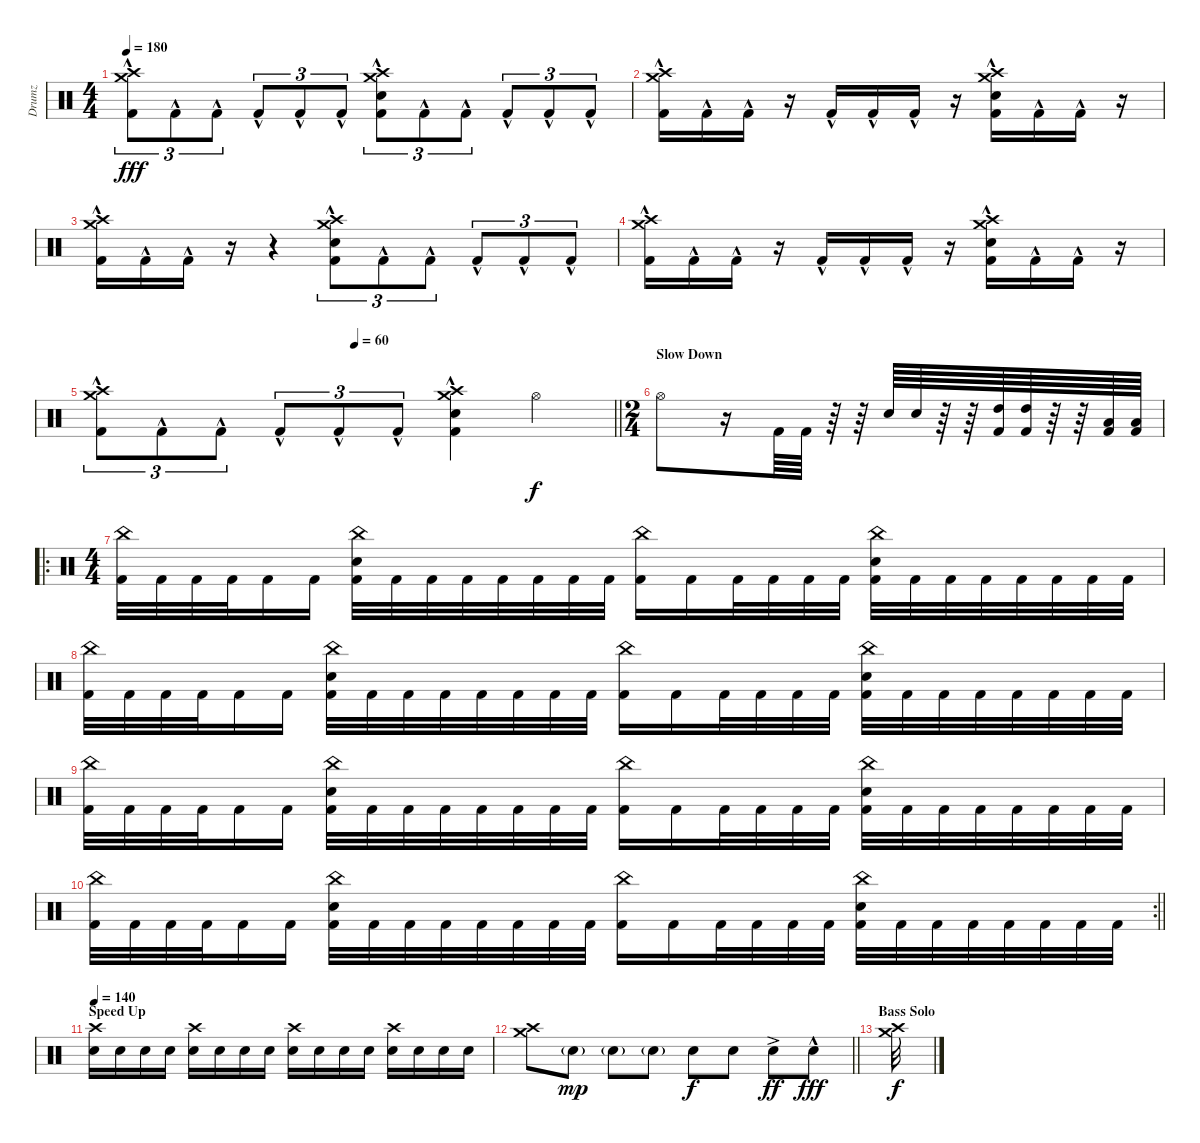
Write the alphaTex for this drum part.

\track ("Drumz" "Drumz") {instrument percussion}
\staff {score}
\articulation defaults
\ts (4 4)
\tempo 180
\clef neutral
\ks c
("Crash high (hit)" "Crash medium (hit)" "Kick (hit) 2"{hac}).8{tu (3 2) dy fff} "Kick (hit) 2"{hac}.8{tu (3 2)} "Kick (hit) 2"{hac}.8{tu (3 2)} "Kick (hit) 2"{hac}.8{tu (3 2)} "Kick (hit) 2"{hac}.8{tu (3 2)} "Kick (hit) 2"{hac}.8{tu (3 2)} ("Snare (hit) 2" "Crash high (hit)" "Crash medium (hit)" "Kick (hit) 2"{hac}).8{tu (3 2)} "Kick (hit) 2"{hac}.8{tu (3 2)} "Kick (hit) 2"{hac}.8{tu (3 2)} "Kick (hit) 2"{hac}.8{tu (3 2)} "Kick (hit) 2"{hac}.8{tu (3 2)} "Kick (hit) 2"{hac}.8{tu (3 2)} |
("Crash high (hit)" "Crash medium (hit)" "Kick (hit) 2"{hac}).16 "Kick (hit) 2"{hac}.16 "Kick (hit) 2"{hac}.16 r.16 "Kick (hit) 2"{hac}.16 "Kick (hit) 2"{hac}.16 "Kick (hit) 2"{hac}.16 r.16 ("Snare (hit) 2" "Crash high (hit)" "Crash medium (hit)" "Kick (hit) 2"{hac}).16 "Kick (hit) 2"{hac}.16 "Kick (hit) 2"{hac}.16 r.16 |
("Crash high (hit)" "Crash medium (hit)" "Kick (hit) 2"{hac}).16 "Kick (hit) 2"{hac}.16 "Kick (hit) 2"{hac}.16 r.16 r.4 ("Snare (hit) 2" "Crash high (hit)" "Crash medium (hit)" "Kick (hit) 2"{hac}).8{tu (3 2)} "Kick (hit) 2"{hac}.8{tu (3 2)} "Kick (hit) 2"{hac}.8{tu (3 2)} "Kick (hit) 2"{hac}.8{tu (3 2)} "Kick (hit) 2"{hac}.8{tu (3 2)} "Kick (hit) 2"{hac}.8{tu (3 2)} |
("Crash high (hit)" "Crash medium (hit)" "Kick (hit) 2"{hac}).16 "Kick (hit) 2"{hac}.16 "Kick (hit) 2"{hac}.16 r.16 "Kick (hit) 2"{hac}.16 "Kick (hit) 2"{hac}.16 "Kick (hit) 2"{hac}.16 r.16 ("Snare (hit) 2" "Crash high (hit)" "Crash medium (hit)" "Kick (hit) 2"{hac}).16 "Kick (hit) 2"{hac}.16 "Kick (hit) 2"{hac}.16 r.16 |
\tempo (60 0.5)
\barLineRight lightlight
("Crash high (hit)" "Crash medium (hit)" "Kick (hit) 2"{hac}).8{tu (3 2)} "Kick (hit) 2"{hac}.8{tu (3 2)} "Kick (hit) 2"{hac}.8{tu (3 2)} "Kick (hit) 2"{hac}.8{tu (3 2)} "Kick (hit) 2"{hac}.8{tu (3 2)} "Kick (hit) 2"{hac}.8{tu (3 2)} ("Snare (hit) 2" "Crash high (hit)" "Crash medium (hit)" "Kick (hit) 2"{hac}).4 "Hi-Hat (open)".4{dy f} |
\ts (2 4)
\section ("" "Slow Down")
"Hi-Hat (open)".8 r.16 "Kick (hit) 2".64 "Kick (hit) 2".64 r.64 r.64 "Electric Snare (hit)".64 "Electric Snare (hit)".64 r.64 r.64 ("High Tom (hit)" "Kick (hit) 2").64 ("High Tom (hit)" "Kick (hit) 2").64 r.64 r.64 ("Low Tom (hit)" "Kick (hit) 2").64 ("Low Tom (hit)" "Kick (hit) 2").64 |
\ro
\ts (4 4)
("China (hit)" "Kick (hit) 2").32 "Kick (hit) 2".32 "Kick (hit) 2".32 "Kick (hit) 2".32 "Kick (hit) 2".16 "Kick (hit) 2".16 ("Electric Snare (hit)" "China (hit)" "Kick (hit) 2").32 "Kick (hit) 2".32 "Kick (hit) 2".32 "Kick (hit) 2".32 "Kick (hit) 2".32 "Kick (hit) 2".32 "Kick (hit) 2".32 "Kick (hit) 2".32 ("China (hit)" "Kick (hit) 2").16 "Kick (hit) 2".16 "Kick (hit) 2".32 "Kick (hit) 2".32 "Kick (hit) 2".32 "Kick (hit) 2".32 ("Electric Snare (hit)" "China (hit)" "Kick (hit) 2").32 "Kick (hit) 2".32 "Kick (hit) 2".32 "Kick (hit) 2".32 "Kick (hit) 2".32 "Kick (hit) 2".32 "Kick (hit) 2".32 "Kick (hit) 2".32 |
("China (hit)" "Kick (hit) 2").32 "Kick (hit) 2".32 "Kick (hit) 2".32 "Kick (hit) 2".32 "Kick (hit) 2".16 "Kick (hit) 2".16 ("Electric Snare (hit)" "China (hit)" "Kick (hit) 2").32 "Kick (hit) 2".32 "Kick (hit) 2".32 "Kick (hit) 2".32 "Kick (hit) 2".32 "Kick (hit) 2".32 "Kick (hit) 2".32 "Kick (hit) 2".32 ("China (hit)" "Kick (hit) 2").16 "Kick (hit) 2".16 "Kick (hit) 2".32 "Kick (hit) 2".32 "Kick (hit) 2".32 "Kick (hit) 2".32 ("Electric Snare (hit)" "China (hit)" "Kick (hit) 2").32 "Kick (hit) 2".32 "Kick (hit) 2".32 "Kick (hit) 2".32 "Kick (hit) 2".32 "Kick (hit) 2".32 "Kick (hit) 2".32 "Kick (hit) 2".32 |
("China (hit)" "Kick (hit) 2").32 "Kick (hit) 2".32 "Kick (hit) 2".32 "Kick (hit) 2".32 "Kick (hit) 2".16 "Kick (hit) 2".16 ("Electric Snare (hit)" "China (hit)" "Kick (hit) 2").32 "Kick (hit) 2".32 "Kick (hit) 2".32 "Kick (hit) 2".32 "Kick (hit) 2".32 "Kick (hit) 2".32 "Kick (hit) 2".32 "Kick (hit) 2".32 ("China (hit)" "Kick (hit) 2").16 "Kick (hit) 2".16 "Kick (hit) 2".32 "Kick (hit) 2".32 "Kick (hit) 2".32 "Kick (hit) 2".32 ("Electric Snare (hit)" "China (hit)" "Kick (hit) 2").32 "Kick (hit) 2".32 "Kick (hit) 2".32 "Kick (hit) 2".32 "Kick (hit) 2".32 "Kick (hit) 2".32 "Kick (hit) 2".32 "Kick (hit) 2".32 |
\rc 2
\barLineRight lightlight
("China (hit)" "Kick (hit) 2").32 "Kick (hit) 2".32 "Kick (hit) 2".32 "Kick (hit) 2".32 "Kick (hit) 2".16 "Kick (hit) 2".16 ("Electric Snare (hit)" "China (hit)" "Kick (hit) 2").32 "Kick (hit) 2".32 "Kick (hit) 2".32 "Kick (hit) 2".32 "Kick (hit) 2".32 "Kick (hit) 2".32 "Kick (hit) 2".32 "Kick (hit) 2".32 ("China (hit)" "Kick (hit) 2").16 "Kick (hit) 2".16 "Kick (hit) 2".32 "Kick (hit) 2".32 "Kick (hit) 2".32 "Kick (hit) 2".32 ("Electric Snare (hit)" "China (hit)" "Kick (hit) 2").32 "Kick (hit) 2".32 "Kick (hit) 2".32 "Kick (hit) 2".32 "Kick (hit) 2".32 "Kick (hit) 2".32 "Kick (hit) 2".32 "Kick (hit) 2".32 |
\section ("" "Speed Up")
\tempo 140
("Crash high (hit)" "Electric Snare (hit)").16 "Electric Snare (hit)".16 "Electric Snare (hit)".16 "Electric Snare (hit)".16 ("Crash high (hit)" "Electric Snare (hit)").16 "Electric Snare (hit)".16 "Electric Snare (hit)".16 "Electric Snare (hit)".16 ("Crash high (hit)" "Electric Snare (hit)").16 "Electric Snare (hit)".16 "Electric Snare (hit)".16 "Electric Snare (hit)".16 ("Crash high (hit)" "Electric Snare (hit)").16 "Electric Snare (hit)".16 "Electric Snare (hit)".16 "Electric Snare (hit)".16 |
\barLineRight lightlight
("Crash medium (hit)" "Crash high (hit)").8 "Electric Snare (hit)"{g}.8{dy mp} "Electric Snare (hit)"{g}.8 "Electric Snare (hit)"{g}.8 "Electric Snare (hit)".8{dy f} "Electric Snare (hit)".8 "Electric Snare (hit)"{ac}.8{dy ff} "Electric Snare (hit)"{hac}.8{dy fff} |
\section ("" "Bass Solo")
("Crash high (hit)" "Crash medium (hit)").32{dy f}
